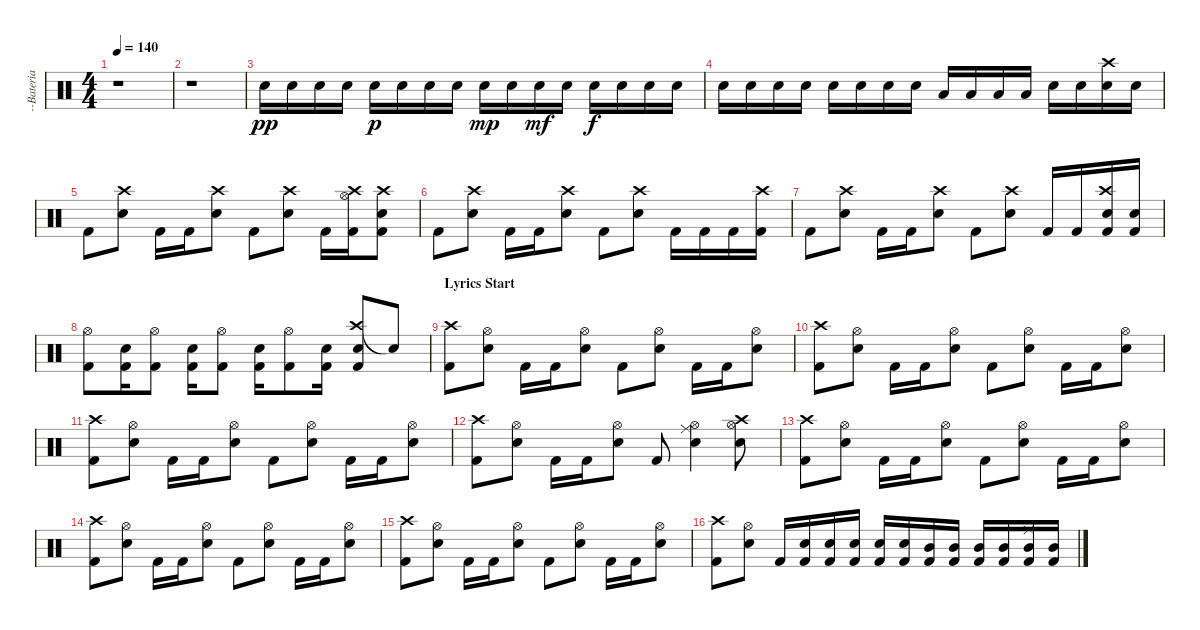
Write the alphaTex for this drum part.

\track ("--Bateria de la ostia" "--Bateria ") {instrument percussion}
\staff {score}
\articulation defaults
\ts (4 4)
\tempo 140
\clef neutral
\ks c
r.1{dy pp} |
r.1 |
"Snare (hit) 2".16 "Snare (hit) 2".16 "Snare (hit) 2".16 "Snare (hit) 2".16 "Snare (hit) 2".16{dy p} "Snare (hit) 2".16 "Snare (hit) 2".16 "Snare (hit) 2".16 "Snare (hit) 2".16{dy mp} "Snare (hit) 2".16 "Snare (hit) 2".16{dy mf} "Snare (hit) 2".16 "Snare (hit) 2".16{dy f} "Snare (hit) 2".16 "Snare (hit) 2".16 "Snare (hit) 2".16 |
"Snare (hit) 2".16 "Snare (hit) 2".16 "Snare (hit) 2".16 "Snare (hit) 2".16 "Snare (hit) 2".16 "Snare (hit) 2".16 "Snare (hit) 2".16 "Snare (hit) 2".16 "Low Tom (hit)".16 "Low Tom (hit)".16 "Low Tom (hit)".16 "Low Tom (hit)".16 "Snare (hit) 2".16 "Snare (hit) 2".16 ("Snare (hit) 2" "Crash high (hit)").16 "Snare (hit) 2".16 |
"Kick (hit) 2".8 ("Snare (hit) 2" "Crash high (hit)").8 "Kick (hit) 2".16 "Kick (hit) 2".16 ("Snare (hit) 2" "Crash high (hit)").8 "Kick (hit) 2".8 ("Snare (hit) 2" "Crash high (hit)").8 "Kick (hit) 2".16 ("Crash high (hit)" "Hi-Hat (open)" "Kick (hit) 2").16 ("Snare (hit) 2" "Crash high (hit)" "Kick (hit) 2").8 |
"Kick (hit) 2".8 ("Snare (hit) 2" "Crash high (hit)").8 "Kick (hit) 2".16 "Kick (hit) 2".16 ("Snare (hit) 2" "Crash high (hit)").8 "Kick (hit) 2".8 ("Snare (hit) 2" "Crash high (hit)").8 "Kick (hit) 2".16 "Kick (hit) 2".16 "Kick (hit) 2".16 ("Crash high (hit)" "Kick (hit) 2").16 |
"Kick (hit) 2".8 ("Snare (hit) 2" "Crash high (hit)").8 "Kick (hit) 2".16 "Kick (hit) 2".16 ("Snare (hit) 2" "Crash high (hit)").8 "Kick (hit) 2".8 ("Snare (hit) 2" "Crash high (hit)").8 "Kick (hit) 2".16 "Kick (hit) 2".16 ("Crash high (hit)" "Snare (hit) 2" "Kick (hit) 2").16 ("Snare (hit) 2" "Kick (hit) 2").16 |
("Hi-Hat (open)" "Kick (hit) 2").8 ("Snare (hit) 2" "Kick (hit) 2").16 ("Hi-Hat (open)" "Kick (hit) 2").8 ("Snare (hit) 2" "Kick (hit) 2").16 ("Hi-Hat (open)" "Kick (hit) 2").8 ("Snare (hit) 2" "Kick (hit) 2").16 ("Hi-Hat (open)" "Kick (hit) 2").8 ("Snare (hit) 2" "Kick (hit) 2").16 ("Crash high (hit)" "Snare (hit) 2" "Kick (hit) 2").8 "Snare (hit)"{t}.8 |
\section ("" "Lyrics Start")
("Crash high (hit)" "Kick (hit) 2").8 ("Hi-Hat (open)" "Snare (hit) 2").8 "Kick (hit) 2".16 "Kick (hit) 2".16 ("Hi-Hat (open)" "Snare (hit) 2").8 "Kick (hit) 2".8 ("Hi-Hat (open)" "Snare (hit) 2").8 "Kick (hit) 2".16 "Kick (hit) 2".16 ("Hi-Hat (open)" "Snare (hit) 2").8 |
("Crash high (hit)" "Kick (hit) 2").8 ("Hi-Hat (open)" "Snare (hit) 2").8 "Kick (hit) 2".16 "Kick (hit) 2".16 ("Hi-Hat (open)" "Snare (hit) 2").8 "Kick (hit) 2".8 ("Hi-Hat (open)" "Snare (hit) 2").8 "Kick (hit) 2".16 "Kick (hit) 2".16 ("Hi-Hat (open)" "Snare (hit) 2").8 |
("Crash high (hit)" "Kick (hit) 2").8 ("Hi-Hat (open)" "Snare (hit) 2").8 "Kick (hit) 2".16 "Kick (hit) 2".16 ("Hi-Hat (open)" "Snare (hit) 2").8 "Kick (hit) 2".8 ("Hi-Hat (open)" "Snare (hit) 2").8 "Kick (hit) 2".16 "Kick (hit) 2".16 ("Hi-Hat (open)" "Snare (hit) 2").8 |
("Crash high (hit)" "Kick (hit) 2").8 ("Hi-Hat (open)" "Snare (hit) 2").8 "Kick (hit) 2".16 "Kick (hit) 2".16 ("Hi-Hat (open)" "Snare (hit) 2").8 "Kick (hit) 2".8 ("Hi-Hat (open)" "Snare (hit) 2" "Ride (middle)").4 ("Crash high (hit)" "Hi-Hat (open)" "Snare (hit) 2").8 |
("Crash high (hit)" "Kick (hit) 2").8 ("Hi-Hat (open)" "Snare (hit) 2").8 "Kick (hit) 2".16 "Kick (hit) 2".16 ("Hi-Hat (open)" "Snare (hit) 2").8 "Kick (hit) 2".8 ("Hi-Hat (open)" "Snare (hit) 2").8 "Kick (hit) 2".16 "Kick (hit) 2".16 ("Hi-Hat (open)" "Snare (hit) 2").8 |
("Crash high (hit)" "Kick (hit) 2").8 ("Hi-Hat (open)" "Snare (hit) 2").8 "Kick (hit) 2".16 "Kick (hit) 2".16 ("Hi-Hat (open)" "Snare (hit) 2").8 "Kick (hit) 2".8 ("Hi-Hat (open)" "Snare (hit) 2").8 "Kick (hit) 2".16 "Kick (hit) 2".16 ("Hi-Hat (open)" "Snare (hit) 2").8 |
("Crash high (hit)" "Kick (hit) 2").8 ("Hi-Hat (open)" "Snare (hit) 2").8 "Kick (hit) 2".16 "Kick (hit) 2".16 ("Hi-Hat (open)" "Snare (hit) 2").8 "Kick (hit) 2".8 ("Hi-Hat (open)" "Snare (hit) 2").8 "Kick (hit) 2".16 "Kick (hit) 2".16 ("Hi-Hat (open)" "Snare (hit) 2").8 |
("Crash high (hit)" "Kick (hit) 2").8 ("Hi-Hat (open)" "Snare (hit) 2").8 "Kick (hit) 2".16 ("Snare (hit) 2" "Kick (hit) 2").16 ("Snare (hit) 2" "Kick (hit) 2").16 ("Snare (hit) 2" "Kick (hit) 2").16 ("Snare (hit) 2" "Kick (hit) 2").16 ("Snare (hit) 2" "Kick (hit) 2").16 ("Mid Tom (hit)" "Kick (hit) 2").16 ("Mid Tom (hit)" "Kick (hit) 2").16 ("Mid Tom (hit)" "Kick (hit) 2").16 ("Mid Tom (hit)" "Kick (hit) 2").16 ("Ride (middle)" "Mid Tom (hit)" "Kick (hit) 2").16 ("Mid Tom (hit)" "Kick (hit) 2").16
